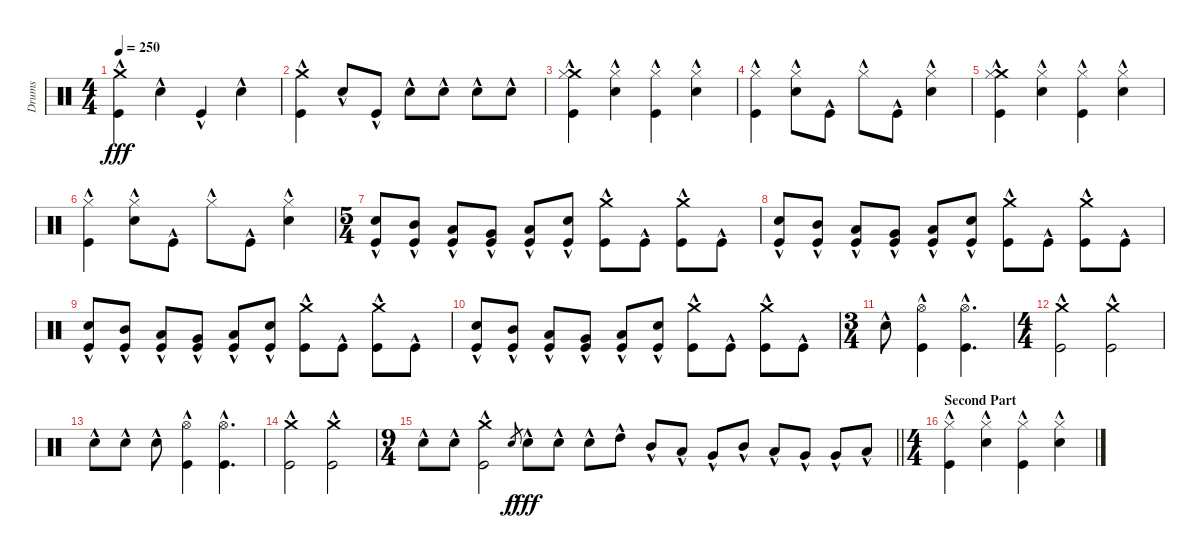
\track ("Drums" "Drums") {instrument percussion}
\staff {score}
\articulation defaults
\ts (4 4)
\tempo 250
\clef neutral
\ks c
("Crash medium (hit)"{hac} "Kick (hit)"{hac}).4{dy fff} "Snare (hit) 2"{hac}.4 "Kick (hit)"{hac}.4 "Snare (hit) 2"{hac}.4 |
("Crash medium (hit)"{hac} "Kick (hit)"{hac}).4 "Snare (hit) 2"{hac}.8 "Kick (hit)"{hac}.8 "Snare (hit) 2"{hac}.8 "Snare (hit) 2"{hac}.8 "Snare (hit) 2"{hac}.8 "Snare (hit) 2"{hac}.8 |
("Crash medium (hit)"{hac} "Hi-Hat (closed)"{hac} "Kick (hit)"{hac}).4 ("Hi-Hat (closed)"{hac} "Snare (hit) 2"{hac}).4 ("Hi-Hat (closed)"{hac} "Kick (hit)"{hac}).4 ("Hi-Hat (closed)"{hac} "Snare (hit) 2"{hac}).4 |
("Hi-Hat (closed)"{hac} "Kick (hit)"{hac}).4 ("Hi-Hat (closed)"{hac} "Snare (hit) 2"{hac}).8 "Kick (hit)"{hac}.8 "Hi-Hat (closed)"{hac}.8 "Kick (hit)"{hac}.8 ("Hi-Hat (closed)"{hac} "Snare (hit) 2"{hac}).4 |
("Crash medium (hit)"{hac} "Hi-Hat (closed)"{hac} "Kick (hit)"{hac}).4 ("Hi-Hat (closed)"{hac} "Snare (hit) 2"{hac}).4 ("Hi-Hat (closed)"{hac} "Kick (hit)"{hac}).4 ("Hi-Hat (closed)"{hac} "Snare (hit) 2"{hac}).4 |
("Hi-Hat (closed)"{hac} "Kick (hit)"{hac}).4 ("Hi-Hat (closed)"{hac} "Snare (hit) 2"{hac}).8 "Kick (hit)"{hac}.8 "Hi-Hat (closed)"{hac}.8 "Kick (hit)"{hac}.8 ("Hi-Hat (closed)"{hac} "Snare (hit) 2"{hac}).4 |
\ts (5 4)
("Snare (hit) 2"{hac} "Kick (hit)"{hac}).8 ("Mid Tom (hit)"{hac} "Kick (hit)"{hac}).8 ("Low Tom (hit)"{hac} "Kick (hit)"{hac}).8 ("Very Low Tom (hit)"{hac} "Kick (hit)"{hac}).8 ("Low Floor Tom (hit)"{hac} "Kick (hit)"{hac}).8 ("Snare (hit) 2"{hac} "Kick (hit)"{hac}).8 ("Crash medium (hit)"{hac} "Kick (hit)"{hac}).8 "Kick (hit)"{hac}.8 ("Crash medium (hit)"{hac} "Kick (hit)"{hac}).8 "Kick (hit)"{hac}.8 |
("Snare (hit) 2"{hac} "Kick (hit)"{hac}).8 ("Mid Tom (hit)"{hac} "Kick (hit)"{hac}).8 ("Low Tom (hit)"{hac} "Kick (hit)"{hac}).8 ("Very Low Tom (hit)"{hac} "Kick (hit)"{hac}).8 ("Low Floor Tom (hit)"{hac} "Kick (hit)"{hac}).8 ("Snare (hit) 2"{hac} "Kick (hit)"{hac}).8 ("Crash medium (hit)"{hac} "Kick (hit)"{hac}).8 "Kick (hit)"{hac}.8 ("Crash medium (hit)"{hac} "Kick (hit)"{hac}).8 "Kick (hit)"{hac}.8 |
("Snare (hit) 2"{hac} "Kick (hit)"{hac}).8 ("Mid Tom (hit)"{hac} "Kick (hit)"{hac}).8 ("Low Tom (hit)"{hac} "Kick (hit)"{hac}).8 ("Very Low Tom (hit)"{hac} "Kick (hit)"{hac}).8 ("Low Floor Tom (hit)"{hac} "Kick (hit)"{hac}).8 ("Snare (hit) 2"{hac} "Kick (hit)"{hac}).8 ("Crash medium (hit)"{hac} "Kick (hit)"{hac}).8 "Kick (hit)"{hac}.8 ("Crash medium (hit)"{hac} "Kick (hit)"{hac}).8 "Kick (hit)"{hac}.8 |
("Snare (hit) 2"{hac} "Kick (hit)"{hac}).8 ("Mid Tom (hit)"{hac} "Kick (hit)"{hac}).8 ("Low Tom (hit)"{hac} "Kick (hit)"{hac}).8 ("Very Low Tom (hit)"{hac} "Kick (hit)"{hac}).8 ("Low Floor Tom (hit)"{hac} "Kick (hit)"{hac}).8 ("Snare (hit) 2"{hac} "Kick (hit)"{hac}).8 ("Crash medium (hit)"{hac} "Kick (hit)"{hac}).8 "Kick (hit)"{hac}.8 ("Crash medium (hit)"{hac} "Kick (hit)"{hac}).8 "Kick (hit)"{hac}.8 |
\ts (3 4)
"Snare (hit) 2"{hac}.8 ("Hi-Hat (open)"{hac} "Kick (hit)"{hac}).4 ("Hi-Hat (open)"{hac} "Kick (hit)"{hac}).4{d} |
\ts (4 4)
("Crash medium (hit)"{hac} "Kick (hit)"{hac}).2 ("Crash medium (hit)"{hac} "Kick (hit)"{hac}).2 |
"Snare (hit) 2"{hac}.8 "Snare (hit) 2"{hac}.8 "Snare (hit) 2"{hac}.8 ("Hi-Hat (open)"{hac} "Kick (hit)"{hac}).4 ("Hi-Hat (open)"{hac} "Kick (hit)"{hac}).4{d} |
("Crash medium (hit)"{hac} "Kick (hit)"{hac}).2 ("Crash medium (hit)"{hac} "Kick (hit)"{hac}).2 |
\ts (9 4)
\barLineRight lightlight "Snare (hit) 2"{hac}.8 "Snare (hit) 2"{hac}.8
("Crash medium (hit)"{hac} "Kick (hit)"{hac}).2 "Snare (hit) 2".8{gr dy f} "Snare (hit) 2"{hac}.8{dy fff} "Snare (hit) 2"{hac}.8 "Snare (hit) 2"{hac}.8 "High Tom (hit)"{hac}.8 "Mid Tom (hit)"{hac}.8 "Low Tom (hit)"{hac}.8 "Very Low Tom (hit)"{hac}.8 "Mid Tom (hit)"{hac}.8 "Low Tom (hit)"{hac}.8 "Very Low Tom (hit)"{hac}.8 "Very Low Tom (hit)"{hac}.8 "Low Floor Tom (hit)"{hac}.8 |
\ts (4 4)
\section ("" "Second Part")
("Hi-Hat (closed)"{hac} "Kick (hit)"{hac}).4 ("Hi-Hat (closed)"{hac} "Snare (hit) 2"{hac}).4 ("Hi-Hat (closed)"{hac} "Kick (hit)"{hac}).4 ("Hi-Hat (closed)"{hac} "Snare (hit) 2"{hac}).4
